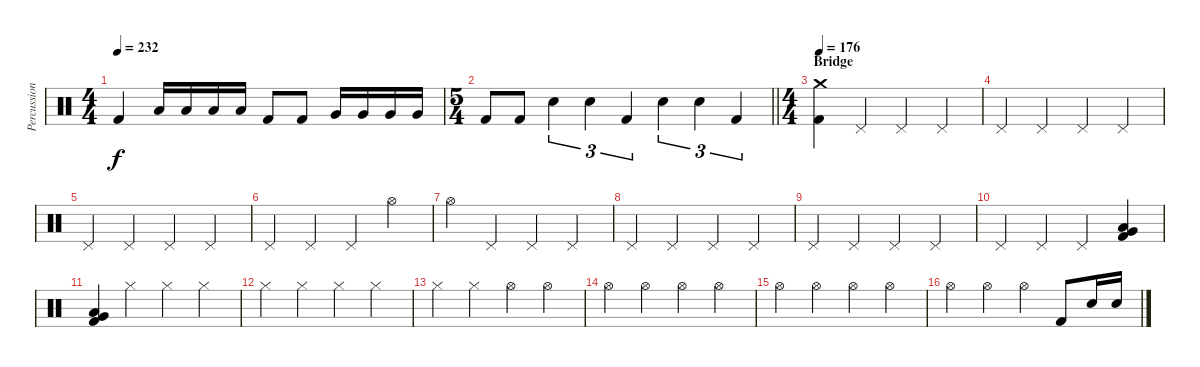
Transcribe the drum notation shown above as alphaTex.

\track ("Percussion" "Percussion") {instrument percussion}
\staff {score}
\articulation defaults
\ts (4 4)
\tempo 232
\clef neutral
\ks c "Kick (hit) 2".4{dy f} "Low Tom (hit)".16 "Low Tom (hit)".16 "Low Tom (hit)".16 "Low Tom (hit)".16 "Kick (hit) 2".8 "Kick (hit) 2".8 "Very Low Tom (hit)".16 "Very Low Tom (hit)".16 "Very Low Tom (hit)".16 "Very Low Tom (hit)".16
|
\ts (5 4)
\barLineRight lightlight "Kick (hit) 2".8 "Kick (hit) 2".8 "Electric Snare (hit)".4{tu (3 2)} "Electric Snare (hit)".4{tu (3 2)} "Kick (hit) 2".4{tu (3 2)} "Electric Snare (hit)".4{tu (3 2)} "Electric Snare (hit)".4{tu (3 2)} "Kick (hit) 2".4{tu (3 2)}
|
\ts (4 4)
\section ("" "Bridge")
\tempo 176
("Crash medium (hit)" "Kick (hit) 2").4 "Pedal Hi-Hat (hit)".4{volume 10} "Pedal Hi-Hat (hit)".4 "Pedal Hi-Hat (hit)".4 |
"Pedal Hi-Hat (hit)".4 "Pedal Hi-Hat (hit)".4 "Pedal Hi-Hat (hit)".4 "Pedal Hi-Hat (hit)".4 |
"Pedal Hi-Hat (hit)".4 "Pedal Hi-Hat (hit)".4 "Pedal Hi-Hat (hit)".4 "Pedal Hi-Hat (hit)".4 |
"Pedal Hi-Hat (hit)".4 "Pedal Hi-Hat (hit)".4 "Pedal Hi-Hat (hit)".4 "Hi-Hat (open)".4 |
"Hi-Hat (open)".4 "Pedal Hi-Hat (hit)".4 "Pedal Hi-Hat (hit)".4 "Pedal Hi-Hat (hit)".4 |
"Pedal Hi-Hat (hit)".4 "Pedal Hi-Hat (hit)".4 "Pedal Hi-Hat (hit)".4 "Pedal Hi-Hat (hit)".4 |
"Pedal Hi-Hat (hit)".4 "Pedal Hi-Hat (hit)".4 "Pedal Hi-Hat (hit)".4 "Pedal Hi-Hat (hit)".4 |
"Pedal Hi-Hat (hit)".4 "Pedal Hi-Hat (hit)".4 "Pedal Hi-Hat (hit)".4 ("Very Low Tom (hit)" "Low Floor Tom (hit)" "Kick (hit) 2").4{volume 14} |
("Very Low Tom (hit)" "Low Floor Tom (hit)" "Kick (hit) 2").4 "Hi-Hat (closed)".4{volume 10} "Hi-Hat (closed)".4 "Hi-Hat (closed)".4 |
"Hi-Hat (closed)".4 "Hi-Hat (closed)".4 "Hi-Hat (closed)".4 "Hi-Hat (closed)".4 |
"Hi-Hat (closed)".4{volume 14} "Hi-Hat (closed)".4 "Hi-Hat (open)".4 "Hi-Hat (open)".4 |
"Hi-Hat (open)".4 "Hi-Hat (open)".4 "Hi-Hat (open)".4 "Hi-Hat (open)".4 |
"Hi-Hat (open)".4 "Hi-Hat (open)".4 "Hi-Hat (open)".4 "Hi-Hat (open)".4 |
"Hi-Hat (open)".4 "Hi-Hat (open)".4 "Hi-Hat (open)".4 "Kick (hit) 2".8 "Electric Snare (hit)".16 "Electric Snare (hit)".16
